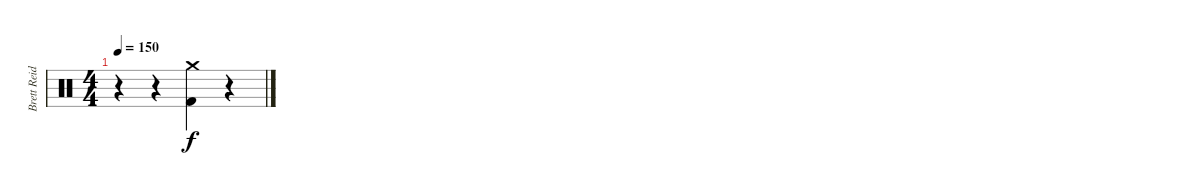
\track ("Brett Reid" "Brett Reid") {instrument percussion}
\staff {score}
\articulation defaults
\ts (4 4)
\tempo 150
\clef neutral
\ks c
r.4{dy f} r.4 ("Crash medium (hit)" "Kick (hit) 2").4 r.4
